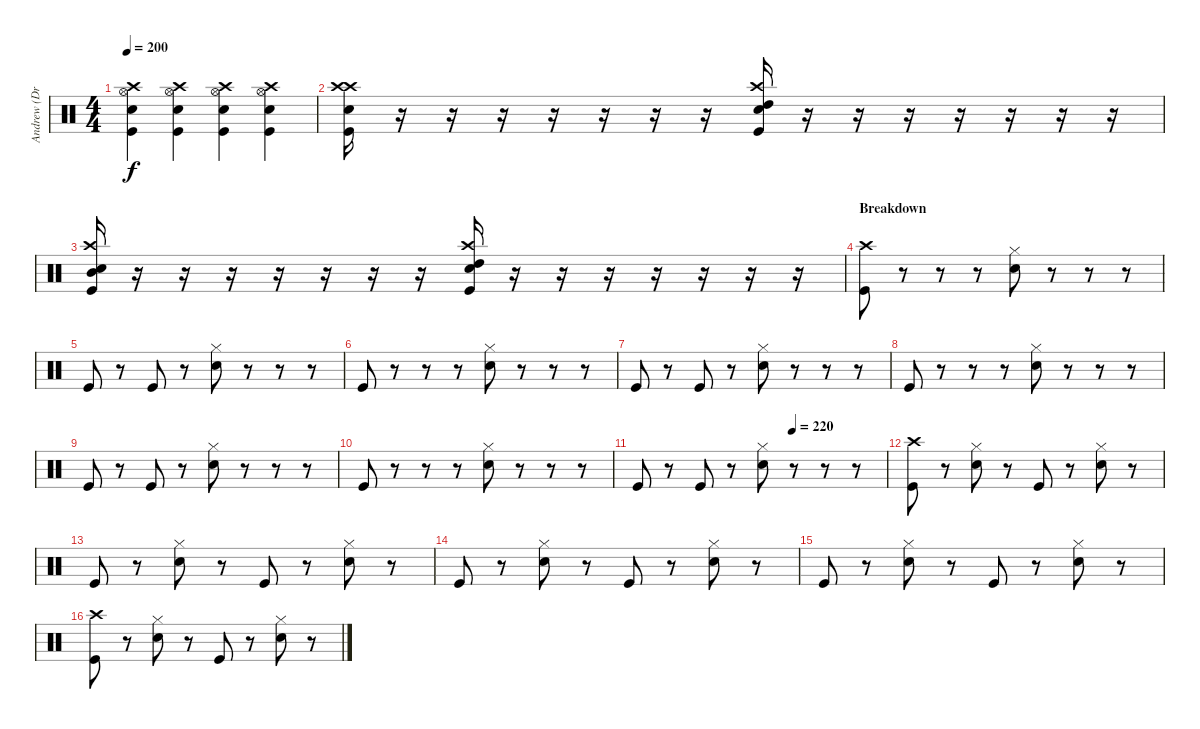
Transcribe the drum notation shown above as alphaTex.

\track ("Andrew (Drums)" "Andrew (Dr") {instrument percussion}
\staff {score}
\articulation defaults
\ts (4 4)
\tempo 200
\clef neutral
\ks c
("Kick (hit)" "Snare (hit) 2" "Hi-Hat (open)" "Crash high (hit)").4{dy f} ("Kick (hit)" "Snare (hit) 2" "Hi-Hat (open)" "Crash high (hit)").4 ("Kick (hit)" "Snare (hit) 2" "Hi-Hat (open)" "Crash high (hit)").4 ("Kick (hit)" "Snare (hit) 2" "Hi-Hat (open)" "Crash high (hit)").4 |
("Kick (hit)" "Snare (hit) 2" "Crash high (hit)" "Crash high (hit)").16 r.16 r.16 r.16 r.16 r.16 r.16 r.16 ("Kick (hit)" "High Tom (hit)" "Snare (hit) 2" "Crash high (hit)").16 r.16 r.16 r.16 r.16 r.16 r.16 r.16 |
("Kick (hit)" "Snare (hit) 2" "Mid Tom (hit)" "Crash high (hit)").16 r.16 r.16 r.16 r.16 r.16 r.16 r.16 ("Kick (hit)" "High Tom (hit)" "Snare (hit) 2" "Crash high (hit)").16 r.16 r.16 r.16 r.16 r.16 r.16 r.16 |
\section ("" "Breakdown")
("Kick (hit)" "Crash high (hit)").8 r.8 r.8 r.8 ("Snare (hit) 2" "Hi-Hat (closed)").8 r.8 r.8 r.8 |
"Kick (hit)".8 r.8 "Kick (hit)".8 r.8 ("Snare (hit) 2" "Hi-Hat (closed)").8 r.8 r.8 r.8 |
"Kick (hit)".8 r.8 r.8 r.8 ("Snare (hit) 2" "Hi-Hat (closed)").8 r.8 r.8 r.8 |
"Kick (hit)".8 r.8 "Kick (hit)".8 r.8 ("Snare (hit) 2" "Hi-Hat (closed)").8 r.8 r.8 r.8 |
"Kick (hit)".8 r.8 r.8 r.8 ("Snare (hit) 2" "Hi-Hat (closed)").8 r.8 r.8 r.8 |
"Kick (hit)".8 r.8 "Kick (hit)".8 r.8 ("Snare (hit) 2" "Hi-Hat (closed)").8 r.8 r.8 r.8 |
"Kick (hit)".8 r.8 r.8 r.8 ("Snare (hit) 2" "Hi-Hat (closed)").8 r.8 r.8 r.8 |
\tempo (220 0.625)
"Kick (hit)".8 r.8 "Kick (hit)".8 r.8 ("Snare (hit) 2" "Hi-Hat (closed)").8 r.8 r.8 r.8 |
("Kick (hit)" "Crash high (hit)").8 r.8 ("Snare (hit) 2" "Hi-Hat (closed)").8 r.8 "Kick (hit)".8 r.8 ("Snare (hit) 2" "Hi-Hat (closed)").8 r.8 |
"Kick (hit)".8 r.8 ("Snare (hit) 2" "Hi-Hat (closed)").8 r.8 "Kick (hit)".8 r.8 ("Snare (hit) 2" "Hi-Hat (closed)").8 r.8 |
"Kick (hit)".8 r.8 ("Snare (hit) 2" "Hi-Hat (closed)").8 r.8 "Kick (hit)".8 r.8 ("Snare (hit) 2" "Hi-Hat (closed)").8 r.8 |
"Kick (hit)".8 r.8 ("Snare (hit) 2" "Hi-Hat (closed)").8 r.8 "Kick (hit)".8 r.8 ("Snare (hit) 2" "Hi-Hat (closed)").8 r.8 |
("Kick (hit)" "Crash high (hit)").8 r.8 ("Snare (hit) 2" "Hi-Hat (closed)").8 r.8 "Kick (hit)".8 r.8 ("Snare (hit) 2" "Hi-Hat (closed)").8 r.8
